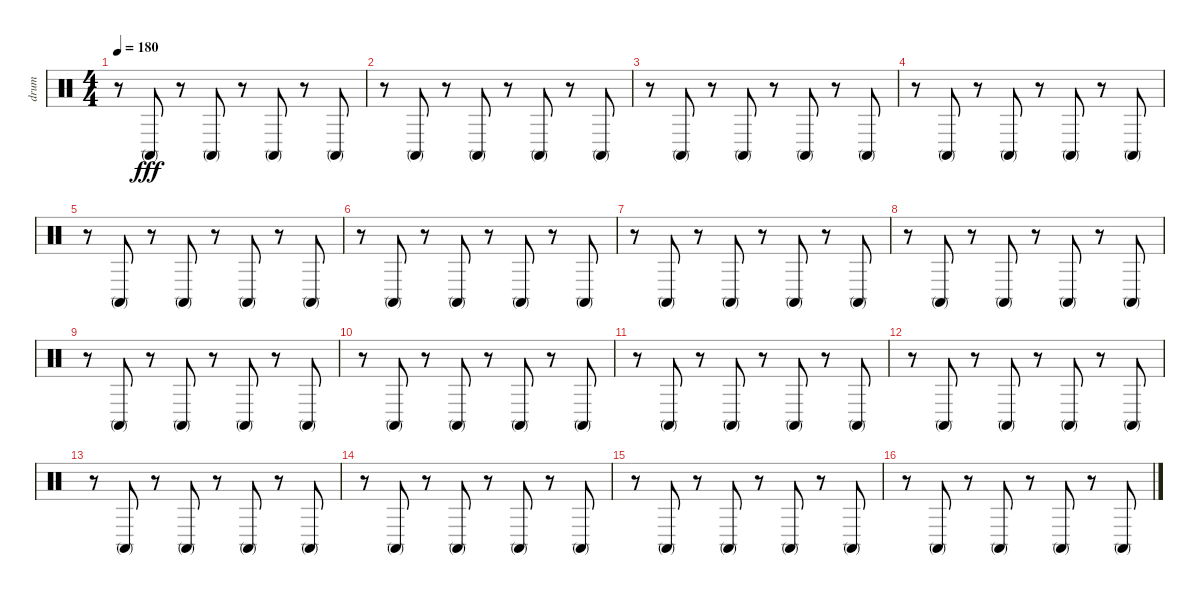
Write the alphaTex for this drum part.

\track ("drum" "drum") {instrument percussion}
\staff {score}
\articulation defaults
\ts (4 4)
\tempo 180
\clef neutral
\ks c
r.8{dy fff} "Conga high (mute)".8 r.8 "Conga high (mute)".8 r.8 "Conga high (mute)".8 r.8 "Conga high (mute)".8 |
r.8 "Conga high (mute)".8 r.8 "Conga high (mute)".8 r.8 "Conga high (mute)".8 r.8 "Conga high (mute)".8 |
r.8 "Conga high (mute)".8 r.8 "Conga high (mute)".8 r.8 "Conga high (mute)".8 r.8 "Conga high (mute)".8 |
r.8 "Conga high (mute)".8 r.8 "Conga high (mute)".8 r.8 "Conga high (mute)".8 r.8 "Conga high (mute)".8 |
r.8 "Conga high (mute)".8 r.8 "Conga high (mute)".8 r.8 "Conga high (mute)".8 r.8 "Conga high (mute)".8 |
r.8 "Conga high (mute)".8 r.8 "Conga high (mute)".8 r.8 "Conga high (mute)".8 r.8 "Conga high (mute)".8 |
r.8 "Conga high (mute)".8 r.8 "Conga high (mute)".8 r.8 "Conga high (mute)".8 r.8 "Conga high (mute)".8 |
r.8 "Conga high (mute)".8 r.8 "Conga high (mute)".8 r.8 "Conga high (mute)".8 r.8 "Conga high (mute)".8 |
r.8 "Conga high (mute)".8 r.8 "Conga high (mute)".8 r.8 "Conga high (mute)".8 r.8 "Conga high (mute)".8 |
r.8 "Conga high (mute)".8 r.8 "Conga high (mute)".8 r.8 "Conga high (mute)".8 r.8 "Conga high (mute)".8 |
r.8 "Conga high (mute)".8 r.8 "Conga high (mute)".8 r.8 "Conga high (mute)".8 r.8 "Conga high (mute)".8 |
r.8 "Conga high (mute)".8 r.8 "Conga high (mute)".8 r.8 "Conga high (mute)".8 r.8 "Conga high (mute)".8 |
r.8 "Conga high (mute)".8 r.8 "Conga high (mute)".8 r.8 "Conga high (mute)".8 r.8 "Conga high (mute)".8 |
r.8 "Conga high (mute)".8 r.8 "Conga high (mute)".8 r.8 "Conga high (mute)".8 r.8 "Conga high (mute)".8 |
r.8 "Conga high (mute)".8 r.8 "Conga high (mute)".8 r.8 "Conga high (mute)".8 r.8 "Conga high (mute)".8 |
r.8 "Conga high (mute)".8 r.8 "Conga high (mute)".8 r.8 "Conga high (mute)".8 r.8 "Conga high (mute)".8
